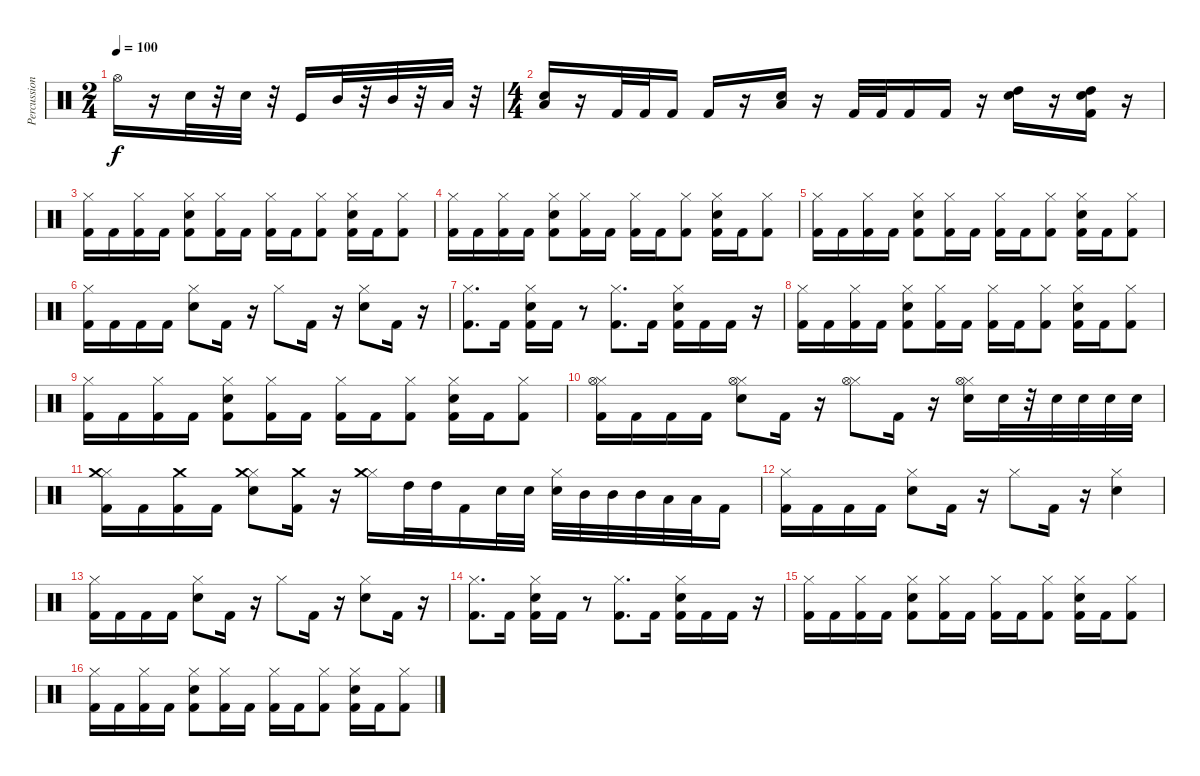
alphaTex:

\track ("Percussion" "Percussion") {instrument percussion}
\staff {score}
\articulation defaults
\ts (2 4)
\tempo 100
\clef neutral
\ks c "Hi-Hat (open)".16{dy f}
r.16 "Snare (hit) 2".32 r.32 "Snare (hit) 2".32 r.32 "Kick (hit)".16 "Mid Tom (hit)".32 r.32 "Mid Tom (hit)".32 r.32 "Low Tom (hit)".32 r.32 |
\ts (4 4)
("Snare (hit) 2" "Low Floor Tom (hit)").16 r.16 "Kick (hit) 2".32 "Kick (hit) 2".32 "Kick (hit) 2".16 "Kick (hit) 2".16 r.16 ("Snare (hit) 2" "Low Floor Tom (hit)").16 r.16 "Kick (hit) 2".32 "Kick (hit) 2".32 "Kick (hit) 2".16 "Kick (hit) 2".16 r.16 ("Snare (hit) 2" "High Tom (hit)").16 r.16 ("Kick (hit) 2" "Snare (hit) 2" "High Tom (hit)").16 r.16 |
("Kick (hit) 2" "Hi-Hat (closed)").16 "Kick (hit) 2".16 ("Kick (hit) 2" "Hi-Hat (closed)").16 "Kick (hit) 2".16 ("Kick (hit) 2" "Snare (hit) 2" "Hi-Hat (closed)").8 ("Kick (hit) 2" "Hi-Hat (closed)").16 "Kick (hit) 2".16 ("Kick (hit) 2" "Hi-Hat (closed)").16 "Kick (hit) 2".16 ("Kick (hit) 2" "Hi-Hat (closed)").8 ("Kick (hit) 2" "Snare (hit) 2" "Hi-Hat (closed)").16 "Kick (hit) 2".16 ("Kick (hit) 2" "Hi-Hat (closed)").8 |
("Kick (hit) 2" "Hi-Hat (closed)").16 "Kick (hit) 2".16 ("Kick (hit) 2" "Hi-Hat (closed)").16 "Kick (hit) 2".16 ("Kick (hit) 2" "Snare (hit) 2" "Hi-Hat (closed)").8 ("Kick (hit) 2" "Hi-Hat (closed)").16 "Kick (hit) 2".16 ("Kick (hit) 2" "Hi-Hat (closed)").16 "Kick (hit) 2".16 ("Kick (hit) 2" "Hi-Hat (closed)").8 ("Kick (hit) 2" "Snare (hit) 2" "Hi-Hat (closed)").16 "Kick (hit) 2".16 ("Kick (hit) 2" "Hi-Hat (closed)").8 |
("Kick (hit) 2" "Hi-Hat (closed)").16 "Kick (hit) 2".16 ("Kick (hit) 2" "Hi-Hat (closed)").16 "Kick (hit) 2".16 ("Kick (hit) 2" "Snare (hit) 2" "Hi-Hat (closed)").8 ("Kick (hit) 2" "Hi-Hat (closed)").16 "Kick (hit) 2".16 ("Kick (hit) 2" "Hi-Hat (closed)").16 "Kick (hit) 2".16 ("Kick (hit) 2" "Hi-Hat (closed)").8 ("Kick (hit) 2" "Snare (hit) 2" "Hi-Hat (closed)").16 "Kick (hit) 2".16 ("Kick (hit) 2" "Hi-Hat (closed)").8 |
("Kick (hit) 2" "Hi-Hat (closed)").16 "Kick (hit) 2".16 "Kick (hit) 2".16 "Kick (hit) 2".16 ("Snare (hit) 2" "Hi-Hat (closed)").8 "Kick (hit) 2".16 r.16 "Hi-Hat (closed)".8 "Kick (hit) 2".16 r.16 ("Snare (hit) 2" "Hi-Hat (closed)").8 "Kick (hit) 2".16 r.16 |
("Kick (hit) 2" "Hi-Hat (closed)").8{d} "Kick (hit) 2".16 ("Kick (hit) 2" "Snare (hit) 2" "Hi-Hat (closed)").16 "Kick (hit) 2".16 r.8 ("Kick (hit) 2" "Hi-Hat (closed)").8{d} "Kick (hit) 2".16 ("Kick (hit) 2" "Snare (hit) 2" "Hi-Hat (closed)").16 "Kick (hit) 2".16 "Kick (hit) 2".16 r.16 |
("Kick (hit) 2" "Hi-Hat (closed)").16 "Kick (hit) 2".16 ("Kick (hit) 2" "Hi-Hat (closed)").16 "Kick (hit) 2".16 ("Kick (hit) 2" "Snare (hit) 2" "Hi-Hat (closed)").8 ("Kick (hit) 2" "Hi-Hat (closed)").16 "Kick (hit) 2".16 ("Kick (hit) 2" "Hi-Hat (closed)").16 "Kick (hit) 2".16 ("Kick (hit) 2" "Hi-Hat (closed)").8 ("Kick (hit) 2" "Snare (hit) 2" "Hi-Hat (closed)").16 "Kick (hit) 2".16 ("Kick (hit) 2" "Hi-Hat (closed)").8 |
("Kick (hit) 2" "Hi-Hat (closed)").16 "Kick (hit) 2".16 ("Kick (hit) 2" "Hi-Hat (closed)").16 "Kick (hit) 2".16 ("Kick (hit) 2" "Snare (hit) 2" "Hi-Hat (closed)").8 ("Kick (hit) 2" "Hi-Hat (closed)").16 "Kick (hit) 2".16 ("Kick (hit) 2" "Hi-Hat (closed)").16 "Kick (hit) 2".16 ("Kick (hit) 2" "Hi-Hat (closed)").8 ("Kick (hit) 2" "Snare (hit) 2" "Hi-Hat (closed)").16 "Kick (hit) 2".16 ("Kick (hit) 2" "Hi-Hat (closed)").8 |
("Kick (hit) 2" "Hi-Hat (closed)" "Hi-Hat (open)").16 "Kick (hit) 2".16 "Kick (hit) 2".16 "Kick (hit) 2".16 ("Snare (hit) 2" "Hi-Hat (closed)" "Hi-Hat (open)").8 "Kick (hit) 2".16 r.16 ("Hi-Hat (closed)" "Hi-Hat (open)").8 "Kick (hit) 2".16 r.16 ("Snare (hit) 2" "Hi-Hat (closed)" "Hi-Hat (open)").16 "Snare (hit) 2".32 r.32 "Snare (hit) 2".32 "Snare (hit) 2".32 "Snare (hit) 2".32 "Snare (hit) 2".32 |
("Kick (hit) 2" "Hi-Hat (closed)" "Crash medium (hit)").16 "Kick (hit) 2".16 ("Kick (hit) 2" "Crash medium (hit)").16 "Kick (hit) 2".16 ("Snare (hit) 2" "Hi-Hat (closed)" "Crash medium (hit)").8 ("Kick (hit) 2" "Crash medium (hit)").16 r.16 ("Hi-Hat (closed)" "Crash medium (hit)").16 "High Tom (hit)".32 "High Tom (hit)".32 "Kick (hit) 2".16 "Snare (hit) 2".32 "Snare (hit) 2".32 ("Snare (hit) 2" "Hi-Hat (closed)").32 "Mid Tom (hit)".32 "Mid Tom (hit)".32 "Mid Tom (hit)".32 "Low Tom (hit)".32 "Low Tom (hit)".32 "Kick (hit) 2".16 |
("Kick (hit) 2" "Hi-Hat (closed)").16 "Kick (hit) 2".16 "Kick (hit) 2".16 "Kick (hit) 2".16 ("Snare (hit) 2" "Hi-Hat (closed)").8 "Kick (hit) 2".16 r.16 "Hi-Hat (closed)".8 "Kick (hit) 2".16 r.16 ("Snare (hit) 2" "Hi-Hat (closed)").4 |
("Kick (hit) 2" "Hi-Hat (closed)").16 "Kick (hit) 2".16 "Kick (hit) 2".16 "Kick (hit) 2".16 ("Snare (hit) 2" "Hi-Hat (closed)").8 "Kick (hit) 2".16 r.16 "Hi-Hat (closed)".8 "Kick (hit) 2".16 r.16 ("Snare (hit) 2" "Hi-Hat (closed)").8 "Kick (hit) 2".16 r.16 |
("Kick (hit) 2" "Hi-Hat (closed)").8{d} "Kick (hit) 2".16 ("Kick (hit) 2" "Snare (hit) 2" "Hi-Hat (closed)").16 "Kick (hit) 2".16 r.8 ("Kick (hit) 2" "Hi-Hat (closed)").8{d} "Kick (hit) 2".16 ("Kick (hit) 2" "Snare (hit) 2" "Hi-Hat (closed)").16 "Kick (hit) 2".16 "Kick (hit) 2".16 r.16 |
("Kick (hit) 2" "Hi-Hat (closed)").16 "Kick (hit) 2".16 ("Kick (hit) 2" "Hi-Hat (closed)").16 "Kick (hit) 2".16 ("Kick (hit) 2" "Snare (hit) 2" "Hi-Hat (closed)").8 ("Kick (hit) 2" "Hi-Hat (closed)").16 "Kick (hit) 2".16 ("Kick (hit) 2" "Hi-Hat (closed)").16 "Kick (hit) 2".16 ("Kick (hit) 2" "Hi-Hat (closed)").8 ("Kick (hit) 2" "Snare (hit) 2" "Hi-Hat (closed)").16 "Kick (hit) 2".16 ("Kick (hit) 2" "Hi-Hat (closed)").8 |
("Kick (hit) 2" "Hi-Hat (closed)").16 "Kick (hit) 2".16 ("Kick (hit) 2" "Hi-Hat (closed)").16 "Kick (hit) 2".16 ("Kick (hit) 2" "Snare (hit) 2" "Hi-Hat (closed)").8 ("Kick (hit) 2" "Hi-Hat (closed)").16 "Kick (hit) 2".16 ("Kick (hit) 2" "Hi-Hat (closed)").16 "Kick (hit) 2".16 ("Kick (hit) 2" "Hi-Hat (closed)").8 ("Kick (hit) 2" "Snare (hit) 2" "Hi-Hat (closed)").16 "Kick (hit) 2".16 ("Kick (hit) 2" "Hi-Hat (closed)").8
